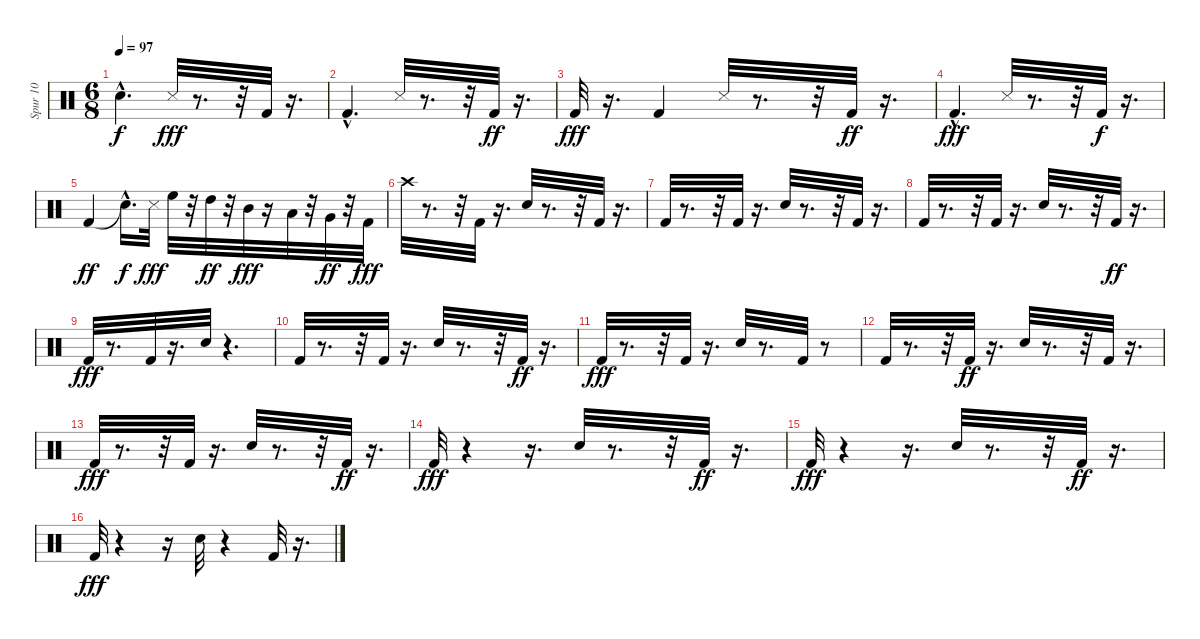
\track ("Spur 10" "Spur 10") {instrument percussion}
\staff {score}
\articulation defaults
\ts (6 8)
\tempo 97
\clef neutral
\ks c "Snare (hit)"{hac t}.4{d dy f} "Snare (side stick) 3".32{dy fff}
r.8{d} r.32 "Kick (hit) 2".32 r.16{d} |
"Kick (hit) 2"{hac}.4{d} "Snare (side stick) 3".32 r.8{d} r.32 "Kick (hit) 2".32{dy ff} r.16{d} |
"Kick (hit) 2".32{dy fff} r.16{d} "Kick (hit) 2".4 "Snare (side stick) 3".32 r.8{d} r.32 "Kick (hit) 2".32{dy ff} r.16{d} |
"Kick (hit) 2"{hac}.4{d dy fff} "Snare (side stick) 3".32 r.8{d} r.32 "Kick (hit) 2".32{dy f} r.16{d} |
"Kick (hit) 2".4{dy ff} "Snare (hit)"{hac t}.16{d dy f} "Snare (side stick) 3".32{dy fff} "High Floor Tom (hit)".32 r.32 "High Tom (hit)".32{dy ff} r.32 "Mid Tom (hit)".32{dy fff} r.16 "Low Tom (hit)".32 r.32 "Very Low Tom (hit)".32{dy ff} r.32 "Kick (hit) 2".32{dy fff} |
"Crash high (hit)".32 r.8{d} r.32 "Kick (hit) 2".32 r.16{d} "Electric Snare (hit)".32 r.8{d} r.32 "Kick (hit) 2".32 r.16{d} |
"Kick (hit) 2".32 r.8{d} r.32 "Kick (hit) 2".32 r.16{d} "Electric Snare (hit)".32 r.8{d} r.32 "Kick (hit) 2".32 r.16{d} |
"Kick (hit) 2".32 r.8{d} r.32 "Kick (hit) 2".32 r.16{d} "Electric Snare (hit)".32 r.8{d} r.32 "Kick (hit) 2".32{dy ff} r.16{d} |
"Kick (hit) 2".32{dy fff} r.8{d} "Kick (hit) 2".32 r.16{d} "Electric Snare (hit)".32 r.4{d} |
"Kick (hit) 2".32 r.8{d} r.32 "Kick (hit) 2".32 r.16{d} "Electric Snare (hit)".32 r.8{d} r.32 "Kick (hit) 2".32{dy ff} r.16{d} |
"Kick (hit) 2".32{dy fff} r.8{d} r.32 "Kick (hit) 2".32 r.16{d} "Electric Snare (hit)".32 r.8{d} "Kick (hit) 2".32 r.8 |
"Kick (hit) 2".32 r.8{d} r.32 "Kick (hit) 2".32{dy ff} r.16{d} "Electric Snare (hit)".32 r.8{d} r.32 "Kick (hit) 2".32 r.16{d} |
"Kick (hit) 2".32{dy fff} r.8{d} r.32 "Kick (hit) 2".32 r.16{d} "Electric Snare (hit)".32 r.8{d} r.32 "Kick (hit) 2".32{dy ff} r.16{d} |
"Kick (hit) 2".32{dy fff} r.4 r.16{d} "Electric Snare (hit)".32 r.8{d} r.32 "Kick (hit) 2".32{dy ff} r.16{d} |
"Kick (hit) 2".32{dy fff} r.4 r.16{d} "Electric Snare (hit)".32 r.8{d} r.32 "Kick (hit) 2".32{dy ff} r.16{d} |
"Kick (hit) 2".32{dy fff} r.4 r.16 "Electric Snare (hit)".32 r.4 "Kick (hit) 2".32 r.16{d}
